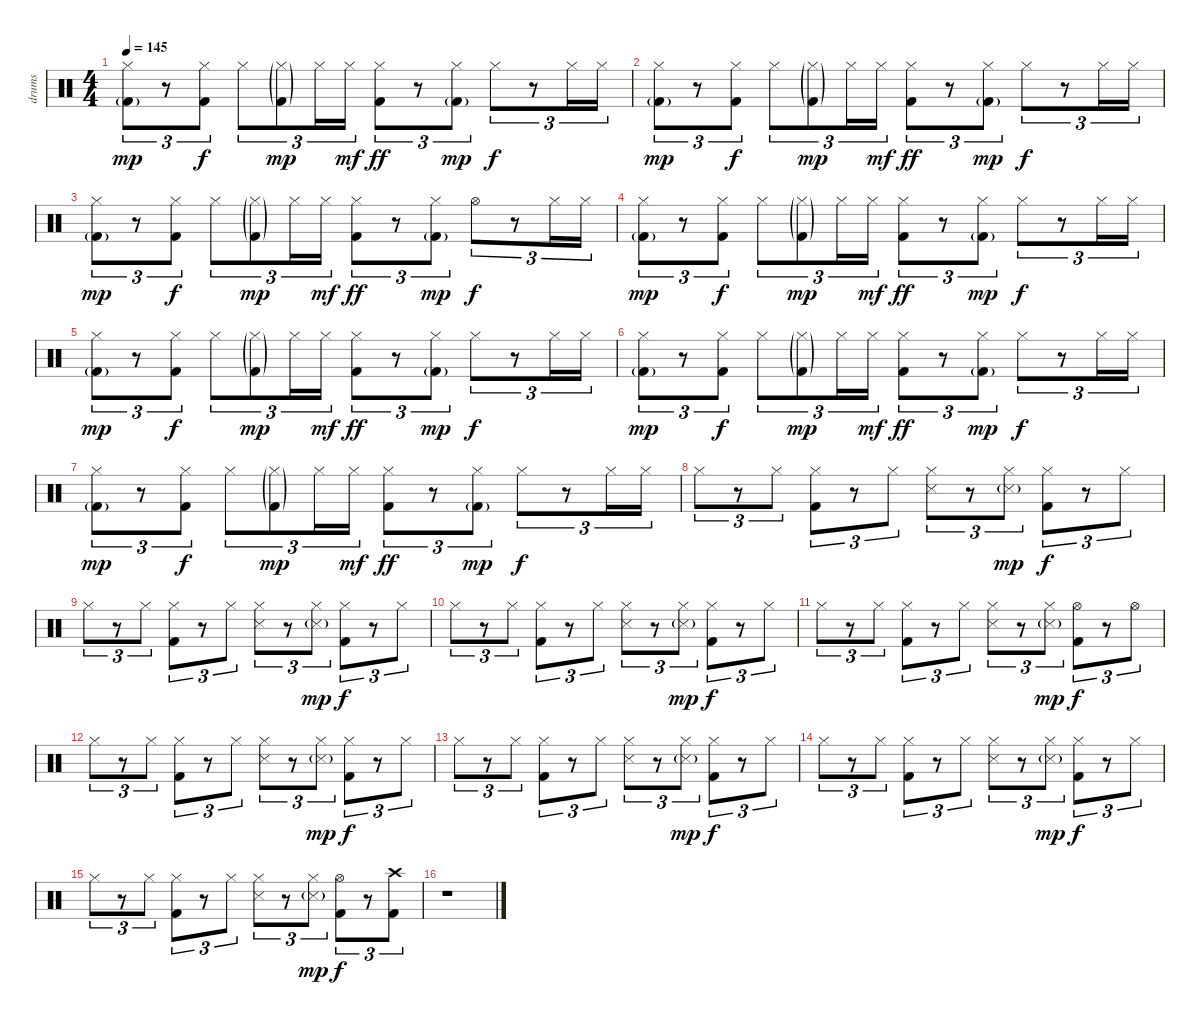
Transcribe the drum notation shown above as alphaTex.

\track ("drums" "drums") {instrument percussion}
\staff {score}
\articulation defaults
\ts (4 4)
\tempo 145
\clef neutral
\ks c
("Hi-Hat (closed)" "Kick (hit) 2"{g}).8{tu (3 2) dy mp} r.8{tu (3 2)} ("Hi-Hat (closed)" "Kick (hit) 2").8{tu (3 2) dy f} "Hi-Hat (closed)".8{tu (3 2)} ("Hi-Hat (closed)"{g} "Kick (hit) 2"{g}).8{tu (3 2) dy mp} "Hi-Hat (closed)".16{tu (3 2)} "Hi-Hat (closed)".16{tu (3 2) dy mf} ("Hi-Hat (closed)" "Kick (hit) 2").8{tu (3 2) dy ff} r.8{tu (3 2)} ("Hi-Hat (closed)" "Kick (hit) 2"{g}).8{tu (3 2) dy mp} "Hi-Hat (closed)".8{tu (3 2) dy f} r.8{tu (3 2)} "Hi-Hat (closed)".16{tu (3 2)} "Hi-Hat (closed)".16{tu (3 2)} |
("Hi-Hat (closed)" "Kick (hit) 2"{g}).8{tu (3 2) dy mp} r.8{tu (3 2)} ("Hi-Hat (closed)" "Kick (hit) 2").8{tu (3 2) dy f} "Hi-Hat (closed)".8{tu (3 2)} ("Hi-Hat (closed)"{g} "Kick (hit) 2"{g}).8{tu (3 2) dy mp} "Hi-Hat (closed)".16{tu (3 2)} "Hi-Hat (closed)".16{tu (3 2) dy mf} ("Hi-Hat (closed)" "Kick (hit) 2").8{tu (3 2) dy ff} r.8{tu (3 2)} ("Hi-Hat (closed)" "Kick (hit) 2"{g}).8{tu (3 2) dy mp} "Hi-Hat (closed)".8{tu (3 2) dy f} r.8{tu (3 2)} "Hi-Hat (closed)".16{tu (3 2)} "Hi-Hat (closed)".16{tu (3 2)} |
("Hi-Hat (closed)" "Kick (hit) 2"{g}).8{tu (3 2) dy mp} r.8{tu (3 2)} ("Hi-Hat (closed)" "Kick (hit) 2").8{tu (3 2) dy f} "Hi-Hat (closed)".8{tu (3 2)} ("Hi-Hat (closed)"{g} "Kick (hit) 2"{g}).8{tu (3 2) dy mp} "Hi-Hat (closed)".16{tu (3 2)} "Hi-Hat (closed)".16{tu (3 2) dy mf} ("Hi-Hat (closed)" "Kick (hit) 2").8{tu (3 2) dy ff} r.8{tu (3 2)} ("Hi-Hat (closed)" "Kick (hit) 2"{g}).8{tu (3 2) dy mp} "Hi-Hat (open)".8{tu (3 2) dy f} r.8{tu (3 2)} "Hi-Hat (closed)".16{tu (3 2)} "Hi-Hat (closed)".16{tu (3 2)} |
("Hi-Hat (closed)" "Kick (hit) 2"{g}).8{tu (3 2) dy mp} r.8{tu (3 2)} ("Hi-Hat (closed)" "Kick (hit) 2").8{tu (3 2) dy f} "Hi-Hat (closed)".8{tu (3 2)} ("Hi-Hat (closed)"{g} "Kick (hit) 2"{g}).8{tu (3 2) dy mp} "Hi-Hat (closed)".16{tu (3 2)} "Hi-Hat (closed)".16{tu (3 2) dy mf} ("Hi-Hat (closed)" "Kick (hit) 2").8{tu (3 2) dy ff} r.8{tu (3 2)} ("Hi-Hat (closed)" "Kick (hit) 2"{g}).8{tu (3 2) dy mp} "Hi-Hat (closed)".8{tu (3 2) dy f} r.8{tu (3 2)} "Hi-Hat (closed)".16{tu (3 2)} "Hi-Hat (closed)".16{tu (3 2)} |
("Hi-Hat (closed)" "Kick (hit) 2"{g}).8{tu (3 2) dy mp} r.8{tu (3 2)} ("Hi-Hat (closed)" "Kick (hit) 2").8{tu (3 2) dy f} "Hi-Hat (closed)".8{tu (3 2)} ("Hi-Hat (closed)"{g} "Kick (hit) 2"{g}).8{tu (3 2) dy mp} "Hi-Hat (closed)".16{tu (3 2)} "Hi-Hat (closed)".16{tu (3 2) dy mf} ("Hi-Hat (closed)" "Kick (hit) 2").8{tu (3 2) dy ff} r.8{tu (3 2)} ("Hi-Hat (closed)" "Kick (hit) 2"{g}).8{tu (3 2) dy mp} "Hi-Hat (closed)".8{tu (3 2) dy f} r.8{tu (3 2)} "Hi-Hat (closed)".16{tu (3 2)} "Hi-Hat (closed)".16{tu (3 2)} |
("Hi-Hat (closed)" "Kick (hit) 2"{g}).8{tu (3 2) dy mp} r.8{tu (3 2)} ("Hi-Hat (closed)" "Kick (hit) 2").8{tu (3 2) dy f} "Hi-Hat (closed)".8{tu (3 2)} ("Hi-Hat (closed)"{g} "Kick (hit) 2"{g}).8{tu (3 2) dy mp} "Hi-Hat (closed)".16{tu (3 2)} "Hi-Hat (closed)".16{tu (3 2) dy mf} ("Hi-Hat (closed)" "Kick (hit) 2").8{tu (3 2) dy ff} r.8{tu (3 2)} ("Hi-Hat (closed)" "Kick (hit) 2"{g}).8{tu (3 2) dy mp} "Hi-Hat (closed)".8{tu (3 2) dy f} r.8{tu (3 2)} "Hi-Hat (closed)".16{tu (3 2)} "Hi-Hat (closed)".16{tu (3 2)} |
("Hi-Hat (closed)" "Kick (hit) 2"{g}).8{tu (3 2) dy mp} r.8{tu (3 2)} ("Hi-Hat (closed)" "Kick (hit) 2").8{tu (3 2) dy f} "Hi-Hat (closed)".8{tu (3 2)} ("Hi-Hat (closed)"{g} "Kick (hit) 2"{g}).8{tu (3 2) dy mp} "Hi-Hat (closed)".16{tu (3 2)} "Hi-Hat (closed)".16{tu (3 2) dy mf} ("Hi-Hat (closed)" "Kick (hit) 2").8{tu (3 2) dy ff} r.8{tu (3 2)} ("Hi-Hat (closed)" "Kick (hit) 2"{g}).8{tu (3 2) dy mp} "Hi-Hat (closed)".8{tu (3 2) dy f} r.8{tu (3 2)} "Hi-Hat (closed)".16{tu (3 2)} "Hi-Hat (closed)".16{tu (3 2)} |
"Hi-Hat (closed)".8{tu (3 2)} r.8{tu (3 2)} "Hi-Hat (closed)".8{tu (3 2)} ("Hi-Hat (closed)" "Kick (hit) 2").8{tu (3 2)} r.8{tu (3 2)} "Hi-Hat (closed)".8{tu (3 2)} ("Hi-Hat (closed)" "Snare (side stick) 3").8{tu (3 2)} r.8{tu (3 2)} ("Hi-Hat (closed)" "Snare (side stick) 3"{g}).8{tu (3 2) dy mp} ("Hi-Hat (closed)" "Kick (hit) 2").8{tu (3 2) dy f} r.8{tu (3 2)} "Hi-Hat (closed)".8{tu (3 2)} |
"Hi-Hat (closed)".8{tu (3 2)} r.8{tu (3 2)} "Hi-Hat (closed)".8{tu (3 2)} ("Hi-Hat (closed)" "Kick (hit) 2").8{tu (3 2)} r.8{tu (3 2)} "Hi-Hat (closed)".8{tu (3 2)} ("Hi-Hat (closed)" "Snare (side stick) 3").8{tu (3 2)} r.8{tu (3 2)} ("Hi-Hat (closed)" "Snare (side stick) 3"{g}).8{tu (3 2) dy mp} ("Hi-Hat (closed)" "Kick (hit) 2").8{tu (3 2) dy f} r.8{tu (3 2)} "Hi-Hat (closed)".8{tu (3 2)} |
"Hi-Hat (closed)".8{tu (3 2)} r.8{tu (3 2)} "Hi-Hat (closed)".8{tu (3 2)} ("Hi-Hat (closed)" "Kick (hit) 2").8{tu (3 2)} r.8{tu (3 2)} "Hi-Hat (closed)".8{tu (3 2)} ("Hi-Hat (closed)" "Snare (side stick) 3").8{tu (3 2)} r.8{tu (3 2)} ("Hi-Hat (closed)" "Snare (side stick) 3"{g}).8{tu (3 2) dy mp} ("Hi-Hat (closed)" "Kick (hit) 2").8{tu (3 2) dy f} r.8{tu (3 2)} "Hi-Hat (closed)".8{tu (3 2)} |
"Hi-Hat (closed)".8{tu (3 2)} r.8{tu (3 2)} "Hi-Hat (closed)".8{tu (3 2)} ("Hi-Hat (closed)" "Kick (hit) 2").8{tu (3 2)} r.8{tu (3 2)} "Hi-Hat (closed)".8{tu (3 2)} ("Hi-Hat (closed)" "Snare (side stick) 3").8{tu (3 2)} r.8{tu (3 2)} ("Hi-Hat (closed)" "Snare (side stick) 3"{g}).8{tu (3 2) dy mp} ("Hi-Hat (open)" "Kick (hit) 2").8{tu (3 2) dy f} r.8{tu (3 2)} "Hi-Hat (open)".8{tu (3 2)} |
"Hi-Hat (closed)".8{tu (3 2)} r.8{tu (3 2)} "Hi-Hat (closed)".8{tu (3 2)} ("Hi-Hat (closed)" "Kick (hit) 2").8{tu (3 2)} r.8{tu (3 2)} "Hi-Hat (closed)".8{tu (3 2)} ("Hi-Hat (closed)" "Snare (side stick) 3").8{tu (3 2)} r.8{tu (3 2)} ("Hi-Hat (closed)" "Snare (side stick) 3"{g}).8{tu (3 2) dy mp} ("Hi-Hat (closed)" "Kick (hit) 2").8{tu (3 2) dy f} r.8{tu (3 2)} "Hi-Hat (closed)".8{tu (3 2)} |
"Hi-Hat (closed)".8{tu (3 2)} r.8{tu (3 2)} "Hi-Hat (closed)".8{tu (3 2)} ("Hi-Hat (closed)" "Kick (hit) 2").8{tu (3 2)} r.8{tu (3 2)} "Hi-Hat (closed)".8{tu (3 2)} ("Hi-Hat (closed)" "Snare (side stick) 3").8{tu (3 2)} r.8{tu (3 2)} ("Hi-Hat (closed)" "Snare (side stick) 3"{g}).8{tu (3 2) dy mp} ("Hi-Hat (closed)" "Kick (hit) 2").8{tu (3 2) dy f} r.8{tu (3 2)} "Hi-Hat (closed)".8{tu (3 2)} |
"Hi-Hat (closed)".8{tu (3 2)} r.8{tu (3 2)} "Hi-Hat (closed)".8{tu (3 2)} ("Hi-Hat (closed)" "Kick (hit) 2").8{tu (3 2)} r.8{tu (3 2)} "Hi-Hat (closed)".8{tu (3 2)} ("Hi-Hat (closed)" "Snare (side stick) 3").8{tu (3 2)} r.8{tu (3 2)} ("Hi-Hat (closed)" "Snare (side stick) 3"{g}).8{tu (3 2) dy mp} ("Hi-Hat (closed)" "Kick (hit) 2").8{tu (3 2) dy f} r.8{tu (3 2)} "Hi-Hat (closed)".8{tu (3 2)} |
"Hi-Hat (closed)".8{tu (3 2)} r.8{tu (3 2)} "Hi-Hat (closed)".8{tu (3 2)} ("Hi-Hat (closed)" "Kick (hit) 2").8{tu (3 2)} r.8{tu (3 2)} "Hi-Hat (closed)".8{tu (3 2)} ("Hi-Hat (closed)" "Snare (side stick) 3").8{tu (3 2)} r.8{tu (3 2)} ("Hi-Hat (closed)" "Snare (side stick) 3"{g}).8{tu (3 2) dy mp} ("Hi-Hat (open)" "Kick (hit) 2").8{tu (3 2) dy f} r.8{tu (3 2)} ("Crash high (hit)" "Kick (hit) 2").8{tu (3 2)} |
r.1
